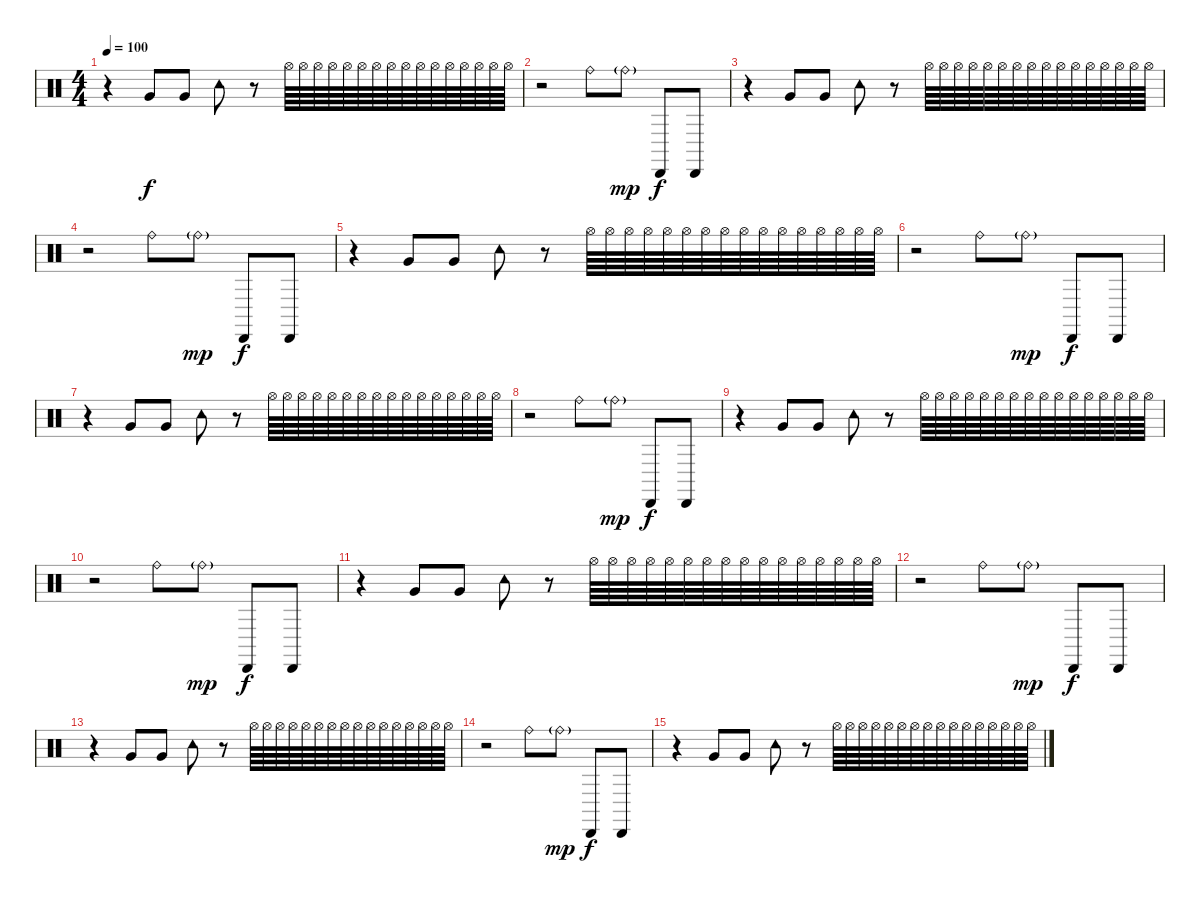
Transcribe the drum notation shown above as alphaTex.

\track "" {instrument percussion}
\staff {score}
\articulation defaults
\ts (4 4)
\tempo 100
\clef neutral
\ks c
r.4{dy f} "Very Low Tom (hit)".8 "Very Low Tom (hit)".8 "Tambourine (hit)".8 r.8 "Hi-Hat (open)".64 "Hi-Hat (open)".64 "Hi-Hat (open)".64 "Hi-Hat (open)".64 "Hi-Hat (open)".64 "Hi-Hat (open)".64 "Hi-Hat (open)".64 "Hi-Hat (open)".64 "Hi-Hat (open)".64 "Hi-Hat (open)".64 "Hi-Hat (open)".64 "Hi-Hat (open)".64 "Hi-Hat (open)".64 "Hi-Hat (open)".64 "Hi-Hat (open)".64 "Hi-Hat (open)".64 |
r.2 "Ride (bell)".8 "Ride (bell)"{g}.8{dy mp} "Cabasa (hit)".8{dy f} "Cabasa (hit)".8 |
r.4 "Very Low Tom (hit)".8 "Very Low Tom (hit)".8 "Tambourine (hit)".8 r.8 "Hi-Hat (open)".64 "Hi-Hat (open)".64 "Hi-Hat (open)".64 "Hi-Hat (open)".64 "Hi-Hat (open)".64 "Hi-Hat (open)".64 "Hi-Hat (open)".64 "Hi-Hat (open)".64 "Hi-Hat (open)".64 "Hi-Hat (open)".64 "Hi-Hat (open)".64 "Hi-Hat (open)".64 "Hi-Hat (open)".64 "Hi-Hat (open)".64 "Hi-Hat (open)".64 "Hi-Hat (open)".64 |
r.2 "Ride (bell)".8 "Ride (bell)"{g}.8{dy mp} "Cabasa (hit)".8{dy f} "Cabasa (hit)".8 |
r.4 "Very Low Tom (hit)".8 "Very Low Tom (hit)".8 "Tambourine (hit)".8 r.8 "Hi-Hat (open)".64 "Hi-Hat (open)".64 "Hi-Hat (open)".64 "Hi-Hat (open)".64 "Hi-Hat (open)".64 "Hi-Hat (open)".64 "Hi-Hat (open)".64 "Hi-Hat (open)".64 "Hi-Hat (open)".64 "Hi-Hat (open)".64 "Hi-Hat (open)".64 "Hi-Hat (open)".64 "Hi-Hat (open)".64 "Hi-Hat (open)".64 "Hi-Hat (open)".64 "Hi-Hat (open)".64 |
r.2 "Ride (bell)".8 "Ride (bell)"{g}.8{dy mp} "Cabasa (hit)".8{dy f} "Cabasa (hit)".8 |
r.4 "Very Low Tom (hit)".8 "Very Low Tom (hit)".8 "Tambourine (hit)".8 r.8 "Hi-Hat (open)".64 "Hi-Hat (open)".64 "Hi-Hat (open)".64 "Hi-Hat (open)".64 "Hi-Hat (open)".64 "Hi-Hat (open)".64 "Hi-Hat (open)".64 "Hi-Hat (open)".64 "Hi-Hat (open)".64 "Hi-Hat (open)".64 "Hi-Hat (open)".64 "Hi-Hat (open)".64 "Hi-Hat (open)".64 "Hi-Hat (open)".64 "Hi-Hat (open)".64 "Hi-Hat (open)".64 |
r.2 "Ride (bell)".8 "Ride (bell)"{g}.8{dy mp} "Cabasa (hit)".8{dy f} "Cabasa (hit)".8 |
r.4 "Very Low Tom (hit)".8 "Very Low Tom (hit)".8 "Tambourine (hit)".8 r.8 "Hi-Hat (open)".64 "Hi-Hat (open)".64 "Hi-Hat (open)".64 "Hi-Hat (open)".64 "Hi-Hat (open)".64 "Hi-Hat (open)".64 "Hi-Hat (open)".64 "Hi-Hat (open)".64 "Hi-Hat (open)".64 "Hi-Hat (open)".64 "Hi-Hat (open)".64 "Hi-Hat (open)".64 "Hi-Hat (open)".64 "Hi-Hat (open)".64 "Hi-Hat (open)".64 "Hi-Hat (open)".64 |
r.2 "Ride (bell)".8 "Ride (bell)"{g}.8{dy mp} "Cabasa (hit)".8{dy f} "Cabasa (hit)".8 |
r.4 "Very Low Tom (hit)".8 "Very Low Tom (hit)".8 "Tambourine (hit)".8 r.8 "Hi-Hat (open)".64 "Hi-Hat (open)".64 "Hi-Hat (open)".64 "Hi-Hat (open)".64 "Hi-Hat (open)".64 "Hi-Hat (open)".64 "Hi-Hat (open)".64 "Hi-Hat (open)".64 "Hi-Hat (open)".64 "Hi-Hat (open)".64 "Hi-Hat (open)".64 "Hi-Hat (open)".64 "Hi-Hat (open)".64 "Hi-Hat (open)".64 "Hi-Hat (open)".64 "Hi-Hat (open)".64 |
r.2 "Ride (bell)".8 "Ride (bell)"{g}.8{dy mp} "Cabasa (hit)".8{dy f} "Cabasa (hit)".8 |
r.4 "Very Low Tom (hit)".8 "Very Low Tom (hit)".8 "Tambourine (hit)".8 r.8 "Hi-Hat (open)".64 "Hi-Hat (open)".64 "Hi-Hat (open)".64 "Hi-Hat (open)".64 "Hi-Hat (open)".64 "Hi-Hat (open)".64 "Hi-Hat (open)".64 "Hi-Hat (open)".64 "Hi-Hat (open)".64 "Hi-Hat (open)".64 "Hi-Hat (open)".64 "Hi-Hat (open)".64 "Hi-Hat (open)".64 "Hi-Hat (open)".64 "Hi-Hat (open)".64 "Hi-Hat (open)".64 |
r.2 "Ride (bell)".8 "Ride (bell)"{g}.8{dy mp} "Cabasa (hit)".8{dy f} "Cabasa (hit)".8 |
r.4 "Very Low Tom (hit)".8 "Very Low Tom (hit)".8 "Tambourine (hit)".8 r.8 "Hi-Hat (open)".64 "Hi-Hat (open)".64 "Hi-Hat (open)".64 "Hi-Hat (open)".64 "Hi-Hat (open)".64 "Hi-Hat (open)".64 "Hi-Hat (open)".64 "Hi-Hat (open)".64 "Hi-Hat (open)".64 "Hi-Hat (open)".64 "Hi-Hat (open)".64 "Hi-Hat (open)".64 "Hi-Hat (open)".64 "Hi-Hat (open)".64 "Hi-Hat (open)".64 "Hi-Hat (open)".64
